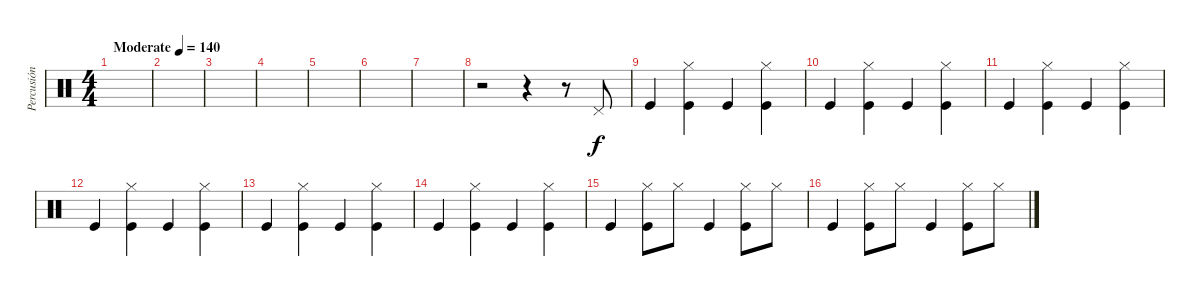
\track ("Percusión" "Percusión") {instrument percussion}
\staff {score}
\articulation defaults
\ts (4 4)
\tempo (140 "Moderate")
\clef neutral
\ks c
|
|
|
|
|
|
|
r.2 r.4 r.8 "Pedal Hi-Hat (hit)".8 |
"Kick (hit)".4 ("Kick (hit)" "Hi-Hat (closed)").4 "Kick (hit)".4 ("Kick (hit)" "Hi-Hat (closed)").4 |
"Kick (hit)".4 ("Kick (hit)" "Hi-Hat (closed)").4 "Kick (hit)".4 ("Kick (hit)" "Hi-Hat (closed)").4 |
"Kick (hit)".4 ("Kick (hit)" "Hi-Hat (closed)").4 "Kick (hit)".4 ("Kick (hit)" "Hi-Hat (closed)").4 |
"Kick (hit)".4 ("Kick (hit)" "Hi-Hat (closed)").4 "Kick (hit)".4 ("Kick (hit)" "Hi-Hat (closed)").4 |
"Kick (hit)".4 ("Kick (hit)" "Hi-Hat (closed)").4 "Kick (hit)".4 ("Kick (hit)" "Hi-Hat (closed)").4 |
"Kick (hit)".4 ("Kick (hit)" "Hi-Hat (closed)").4 "Kick (hit)".4 ("Kick (hit)" "Hi-Hat (closed)").4 |
"Kick (hit)".4 ("Kick (hit)" "Hi-Hat (closed)").8 "Hi-Hat (closed)".8 "Kick (hit)".4 ("Kick (hit)" "Hi-Hat (closed)").8 "Hi-Hat (closed)".8 |
"Kick (hit)".4 ("Kick (hit)" "Hi-Hat (closed)").8 "Hi-Hat (closed)".8 "Kick (hit)".4 ("Kick (hit)" "Hi-Hat (closed)").8 "Hi-Hat (closed)".8
